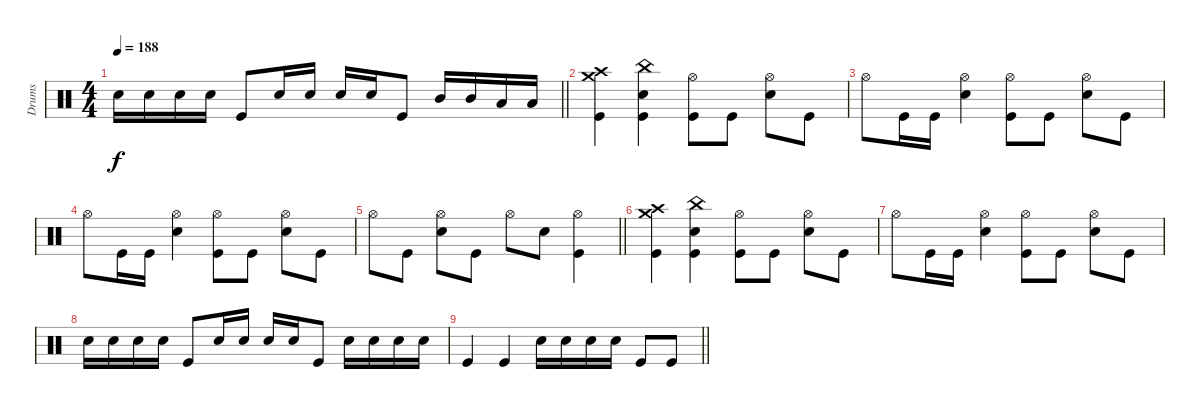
\track ("Drums" "Drums") {instrument percussion}
\staff
\articulation defaults
\ts (4 4)
\tempo 188
\clef neutral
\barLineRight lightlight
\ks c "Electric Snare (hit)".16{dy f} "Electric Snare (hit)".16 "Electric Snare (hit)".16 "Electric Snare (hit)".16 "Kick (hit)".8 "Electric Snare (hit)".16 "Electric Snare (hit)".16 "Electric Snare (hit)".16 "Electric Snare (hit)".16 "Kick (hit)".8 "Mid Tom (hit)".16 "Mid Tom (hit)".16 "Low Tom (hit)".16 "Low Tom (hit)".16
|
("Crash medium (hit)" "Crash high (hit)" "Kick (hit)").4 ("China (hit)" "Electric Snare (hit)" "Kick (hit)").4 ("Hi-Hat (open)" "Kick (hit)").8 "Kick (hit)".8 ("Hi-Hat (open)" "Electric Snare (hit)").8 "Kick (hit)".8 |
"Hi-Hat (open)".8 "Kick (hit)".16 "Kick (hit)".16 ("Hi-Hat (open)" "Electric Snare (hit)").4 ("Hi-Hat (open)" "Kick (hit)").8 "Kick (hit)".8 ("Hi-Hat (open)" "Electric Snare (hit)").8 "Kick (hit)".8 |
"Hi-Hat (open)".8 "Kick (hit)".16 "Kick (hit)".16 ("Hi-Hat (open)" "Electric Snare (hit)").4 ("Hi-Hat (open)" "Kick (hit)").8 "Kick (hit)".8 ("Hi-Hat (open)" "Electric Snare (hit)").8 "Kick (hit)".8 |
\barLineRight lightlight "Hi-Hat (open)".8 "Kick (hit)".8
("Hi-Hat (open)" "Electric Snare (hit)").8 "Kick (hit)".8 "Hi-Hat (open)".8 "Electric Snare (hit)".8 ("Hi-Hat (open)" "Kick (hit)").4 |
("Crash medium (hit)" "Crash high (hit)" "Kick (hit)").4 ("China (hit)" "Electric Snare (hit)" "Kick (hit)").4 ("Hi-Hat (open)" "Kick (hit)").8 "Kick (hit)".8 ("Hi-Hat (open)" "Electric Snare (hit)").8 "Kick (hit)".8 |
"Hi-Hat (open)".8 "Kick (hit)".16 "Kick (hit)".16 ("Hi-Hat (open)" "Electric Snare (hit)").4 ("Hi-Hat (open)" "Kick (hit)").8 "Kick (hit)".8 ("Hi-Hat (open)" "Electric Snare (hit)").8 "Kick (hit)".8 |
"Electric Snare (hit)".16 "Electric Snare (hit)".16 "Electric Snare (hit)".16 "Electric Snare (hit)".16 "Kick (hit)".8 "Electric Snare (hit)".16 "Electric Snare (hit)".16 "Electric Snare (hit)".16 "Electric Snare (hit)".16 "Kick (hit)".8 "Electric Snare (hit)".16 "Electric Snare (hit)".16 "Electric Snare (hit)".16 "Electric Snare (hit)".16 |
\barLineRight lightlight "Kick (hit)".4 "Kick (hit)".4 "Electric Snare (hit)".16 "Electric Snare (hit)".16 "Electric Snare (hit)".16 "Electric Snare (hit)".16 "Kick (hit)".8 "Kick (hit)".8
